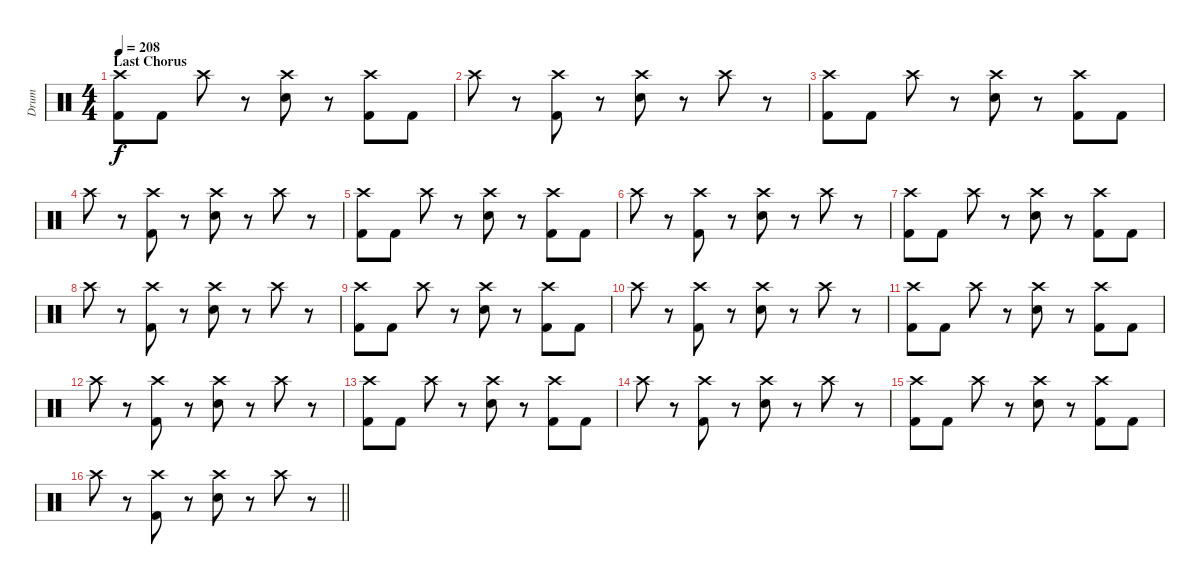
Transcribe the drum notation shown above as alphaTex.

\track ("Drum" "Drum") {instrument percussion}
\staff {score}
\articulation defaults
\ts (4 4)
\section ("" "Last Chorus")
\tempo 208
\clef neutral
\ks c
("Crash high (hit)" "Kick (hit) 2").8{dy f} "Kick (hit) 2".8 "Crash high (hit)".8 r.8 ("Crash high (hit)" "Electric Snare (hit)").8 r.8 ("Crash high (hit)" "Kick (hit) 2").8 "Kick (hit) 2".8 |
"Crash high (hit)".8 r.8 ("Crash high (hit)" "Kick (hit) 2").8 r.8 ("Crash high (hit)" "Electric Snare (hit)").8 r.8 "Crash high (hit)".8 r.8 |
("Crash high (hit)" "Kick (hit) 2").8 "Kick (hit) 2".8 "Crash high (hit)".8 r.8 ("Crash high (hit)" "Electric Snare (hit)").8 r.8 ("Crash high (hit)" "Kick (hit) 2").8 "Kick (hit) 2".8 |
"Crash high (hit)".8 r.8 ("Crash high (hit)" "Kick (hit) 2").8 r.8 ("Crash high (hit)" "Electric Snare (hit)").8 r.8 "Crash high (hit)".8 r.8 |
("Crash high (hit)" "Kick (hit) 2").8 "Kick (hit) 2".8 "Crash high (hit)".8 r.8 ("Crash high (hit)" "Electric Snare (hit)").8 r.8 ("Crash high (hit)" "Kick (hit) 2").8 "Kick (hit) 2".8 |
"Crash high (hit)".8 r.8 ("Crash high (hit)" "Kick (hit) 2").8 r.8 ("Crash high (hit)" "Electric Snare (hit)").8 r.8 "Crash high (hit)".8 r.8 |
("Crash high (hit)" "Kick (hit) 2").8 "Kick (hit) 2".8 "Crash high (hit)".8 r.8 ("Crash high (hit)" "Electric Snare (hit)").8 r.8 ("Crash high (hit)" "Kick (hit) 2").8 "Kick (hit) 2".8 |
"Crash high (hit)".8 r.8 ("Crash high (hit)" "Kick (hit) 2").8 r.8 ("Crash high (hit)" "Electric Snare (hit)").8 r.8 "Crash high (hit)".8 r.8 |
("Crash high (hit)" "Kick (hit) 2").8 "Kick (hit) 2".8 "Crash high (hit)".8 r.8 ("Crash high (hit)" "Electric Snare (hit)").8 r.8 ("Crash high (hit)" "Kick (hit) 2").8 "Kick (hit) 2".8 |
"Crash high (hit)".8 r.8 ("Crash high (hit)" "Kick (hit) 2").8 r.8 ("Crash high (hit)" "Electric Snare (hit)").8 r.8 "Crash high (hit)".8 r.8 |
("Crash high (hit)" "Kick (hit) 2").8 "Kick (hit) 2".8 "Crash high (hit)".8 r.8 ("Crash high (hit)" "Electric Snare (hit)").8 r.8 ("Crash high (hit)" "Kick (hit) 2").8 "Kick (hit) 2".8 |
"Crash high (hit)".8 r.8 ("Crash high (hit)" "Kick (hit) 2").8 r.8 ("Crash high (hit)" "Electric Snare (hit)").8 r.8 "Crash high (hit)".8 r.8 |
("Crash high (hit)" "Kick (hit) 2").8 "Kick (hit) 2".8 "Crash high (hit)".8 r.8 ("Crash high (hit)" "Electric Snare (hit)").8 r.8 ("Crash high (hit)" "Kick (hit) 2").8 "Kick (hit) 2".8 |
"Crash high (hit)".8 r.8 ("Crash high (hit)" "Kick (hit) 2").8 r.8 ("Crash high (hit)" "Electric Snare (hit)").8 r.8 "Crash high (hit)".8 r.8 |
("Crash high (hit)" "Kick (hit) 2").8 "Kick (hit) 2".8 "Crash high (hit)".8 r.8 ("Crash high (hit)" "Electric Snare (hit)").8 r.8 ("Crash high (hit)" "Kick (hit) 2").8 "Kick (hit) 2".8 |
\barLineRight lightlight "Crash high (hit)".8
r.8 ("Crash high (hit)" "Kick (hit) 2").8 r.8 ("Crash high (hit)" "Electric Snare (hit)").8 r.8 "Crash high (hit)".8 r.8
